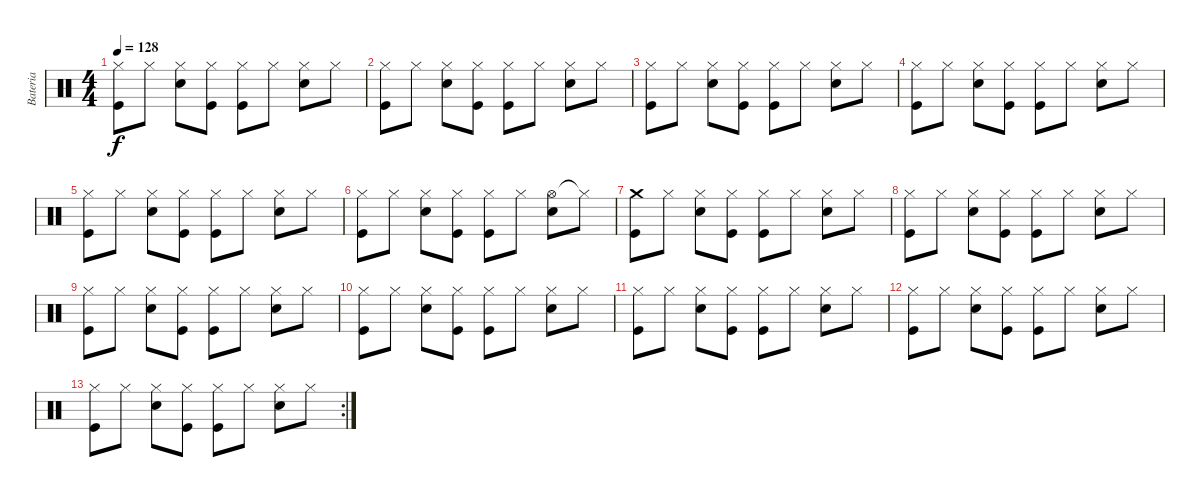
\track ("Bateria" "Bateria") {instrument percussion}
\staff {score}
\articulation defaults
\ts (4 4)
\tempo 128
\clef neutral
\ks c
("Hi-Hat (closed)" "Kick (hit)").8{dy f} "Hi-Hat (closed)".8 ("Hi-Hat (closed)" "Snare (hit) 2").8 ("Hi-Hat (closed)" "Kick (hit)").8 ("Hi-Hat (closed)" "Kick (hit)").8 "Hi-Hat (closed)".8 ("Hi-Hat (closed)" "Snare (hit) 2").8 "Hi-Hat (closed)".8 |
("Hi-Hat (closed)" "Kick (hit)").8 "Hi-Hat (closed)".8 ("Hi-Hat (closed)" "Snare (hit) 2").8 ("Hi-Hat (closed)" "Kick (hit)").8 ("Hi-Hat (closed)" "Kick (hit)").8 "Hi-Hat (closed)".8 ("Hi-Hat (closed)" "Snare (hit) 2").8 "Hi-Hat (closed)".8 |
("Hi-Hat (closed)" "Kick (hit)").8 "Hi-Hat (closed)".8 ("Hi-Hat (closed)" "Snare (hit) 2").8 ("Hi-Hat (closed)" "Kick (hit)").8 ("Hi-Hat (closed)" "Kick (hit)").8 "Hi-Hat (closed)".8 ("Hi-Hat (closed)" "Snare (hit) 2").8 "Hi-Hat (closed)".8 |
("Hi-Hat (closed)" "Kick (hit)").8 "Hi-Hat (closed)".8 ("Hi-Hat (closed)" "Snare (hit) 2").8 ("Hi-Hat (closed)" "Kick (hit)").8 ("Hi-Hat (closed)" "Kick (hit)").8 "Hi-Hat (closed)".8 ("Hi-Hat (closed)" "Snare (hit) 2").8 "Hi-Hat (closed)".8 |
("Hi-Hat (closed)" "Kick (hit)").8 "Hi-Hat (closed)".8 ("Hi-Hat (closed)" "Snare (hit) 2").8 ("Hi-Hat (closed)" "Kick (hit)").8 ("Hi-Hat (closed)" "Kick (hit)").8 "Hi-Hat (closed)".8 ("Hi-Hat (closed)" "Snare (hit) 2").8 "Hi-Hat (closed)".8 |
("Hi-Hat (closed)" "Kick (hit)").8 "Hi-Hat (closed)".8 ("Hi-Hat (closed)" "Snare (hit) 2").8 ("Hi-Hat (closed)" "Kick (hit)").8 ("Hi-Hat (closed)" "Kick (hit)").8 "Hi-Hat (closed)".8 ("Hi-Hat (open)" "Snare (hit) 2").8 "Hi-Hat (closed)"{t}.8 |
("Crash medium (hit)" "Kick (hit)").8 "Hi-Hat (closed)".8 ("Hi-Hat (closed)" "Snare (hit) 2").8 ("Hi-Hat (closed)" "Kick (hit)").8 ("Hi-Hat (closed)" "Kick (hit)").8 "Hi-Hat (closed)".8 ("Hi-Hat (closed)" "Snare (hit) 2").8 "Hi-Hat (closed)".8 |
("Hi-Hat (closed)" "Kick (hit)").8 "Hi-Hat (closed)".8 ("Hi-Hat (closed)" "Snare (hit) 2").8 ("Hi-Hat (closed)" "Kick (hit)").8 ("Hi-Hat (closed)" "Kick (hit)").8 "Hi-Hat (closed)".8 ("Hi-Hat (closed)" "Snare (hit) 2").8 "Hi-Hat (closed)".8 |
("Hi-Hat (closed)" "Kick (hit)").8 "Hi-Hat (closed)".8 ("Hi-Hat (closed)" "Snare (hit) 2").8 ("Hi-Hat (closed)" "Kick (hit)").8 ("Hi-Hat (closed)" "Kick (hit)").8 "Hi-Hat (closed)".8 ("Hi-Hat (closed)" "Snare (hit) 2").8 "Hi-Hat (closed)".8 |
("Hi-Hat (closed)" "Kick (hit)").8 "Hi-Hat (closed)".8 ("Hi-Hat (closed)" "Snare (hit) 2").8 ("Hi-Hat (closed)" "Kick (hit)").8 ("Hi-Hat (closed)" "Kick (hit)").8 "Hi-Hat (closed)".8 ("Hi-Hat (closed)" "Snare (hit) 2").8 "Hi-Hat (closed)".8 |
("Hi-Hat (closed)" "Kick (hit)").8 "Hi-Hat (closed)".8 ("Hi-Hat (closed)" "Snare (hit) 2").8 ("Hi-Hat (closed)" "Kick (hit)").8 ("Hi-Hat (closed)" "Kick (hit)").8 "Hi-Hat (closed)".8 ("Hi-Hat (closed)" "Snare (hit) 2").8 "Hi-Hat (closed)".8 |
("Hi-Hat (closed)" "Kick (hit)").8 "Hi-Hat (closed)".8 ("Hi-Hat (closed)" "Snare (hit) 2").8 ("Hi-Hat (closed)" "Kick (hit)").8 ("Hi-Hat (closed)" "Kick (hit)").8 "Hi-Hat (closed)".8 ("Hi-Hat (closed)" "Snare (hit) 2").8 "Hi-Hat (closed)".8 |
\rc 2
("Hi-Hat (closed)" "Kick (hit)").8 "Hi-Hat (closed)".8 ("Hi-Hat (closed)" "Snare (hit) 2").8 ("Hi-Hat (closed)" "Kick (hit)").8 ("Hi-Hat (closed)" "Kick (hit)").8 "Hi-Hat (closed)".8 ("Hi-Hat (closed)" "Snare (hit) 2").8 "Hi-Hat (closed)".8
